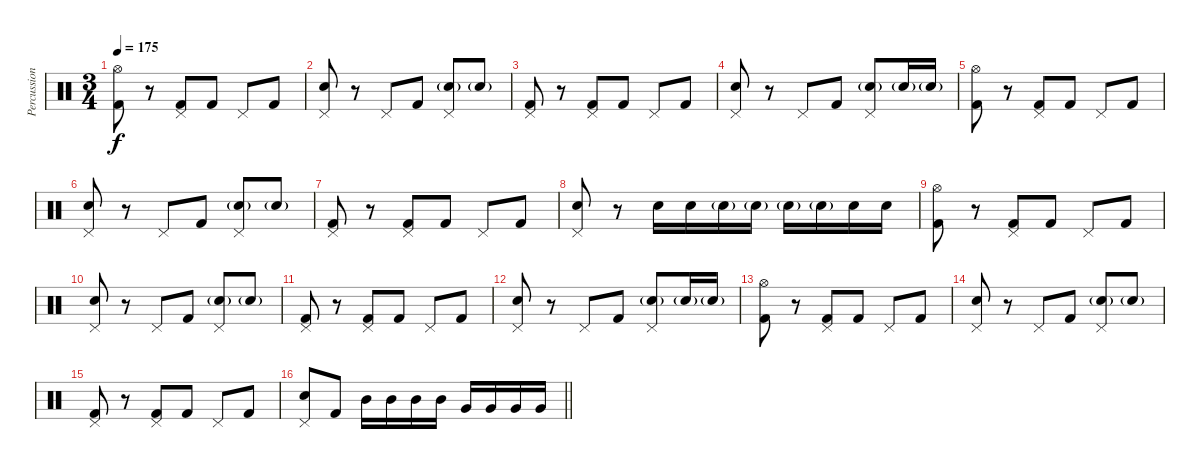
\track ("Percussion" "Percussion") {instrument percussion}
\staff {score}
\articulation defaults
\ts (3 4)
\tempo 175
\clef neutral
\ks c
("Hi-Hat (open)" "Kick (hit) 2").8{dy f} r.8 ("Pedal Hi-Hat (hit)" "Kick (hit) 2").8 "Kick (hit) 2".8 "Pedal Hi-Hat (hit)".8 "Kick (hit) 2".8 |
("Pedal Hi-Hat (hit)" "Electric Snare (hit)").8 r.8 "Pedal Hi-Hat (hit)".8 "Kick (hit) 2".8 ("Pedal Hi-Hat (hit)" "Electric Snare (hit)"{g}).8 "Electric Snare (hit)"{g}.8 |
("Pedal Hi-Hat (hit)" "Kick (hit) 2").8 r.8 ("Pedal Hi-Hat (hit)" "Kick (hit) 2").8 "Kick (hit) 2".8 "Pedal Hi-Hat (hit)".8 "Kick (hit) 2".8 |
("Pedal Hi-Hat (hit)" "Electric Snare (hit)").8 r.8 "Pedal Hi-Hat (hit)".8 "Kick (hit) 2".8 ("Pedal Hi-Hat (hit)" "Electric Snare (hit)"{g}).8 "Electric Snare (hit)"{g}.16 "Electric Snare (hit)"{g}.16 |
("Hi-Hat (open)" "Kick (hit) 2").8 r.8 ("Pedal Hi-Hat (hit)" "Kick (hit) 2").8 "Kick (hit) 2".8 "Pedal Hi-Hat (hit)".8 "Kick (hit) 2".8 |
("Pedal Hi-Hat (hit)" "Electric Snare (hit)").8 r.8 "Pedal Hi-Hat (hit)".8 "Kick (hit) 2".8 ("Pedal Hi-Hat (hit)" "Electric Snare (hit)"{g}).8 "Electric Snare (hit)"{g}.8 |
("Pedal Hi-Hat (hit)" "Kick (hit) 2").8 r.8 ("Pedal Hi-Hat (hit)" "Kick (hit) 2").8 "Kick (hit) 2".8 "Pedal Hi-Hat (hit)".8 "Kick (hit) 2".8 |
("Pedal Hi-Hat (hit)" "Electric Snare (hit)").8 r.8 "Electric Snare (hit)".16 "Electric Snare (hit)".16 "Electric Snare (hit)"{g}.16 "Electric Snare (hit)"{g}.16 "Electric Snare (hit)"{g}.16 "Electric Snare (hit)"{g}.16 "Electric Snare (hit)".16 "Electric Snare (hit)".16 |
("Hi-Hat (open)" "Kick (hit) 2").8 r.8 ("Pedal Hi-Hat (hit)" "Kick (hit) 2").8 "Kick (hit) 2".8 "Pedal Hi-Hat (hit)".8 "Kick (hit) 2".8 |
("Pedal Hi-Hat (hit)" "Electric Snare (hit)").8 r.8 "Pedal Hi-Hat (hit)".8 "Kick (hit) 2".8 ("Pedal Hi-Hat (hit)" "Electric Snare (hit)"{g}).8 "Electric Snare (hit)"{g}.8 |
("Pedal Hi-Hat (hit)" "Kick (hit) 2").8 r.8 ("Pedal Hi-Hat (hit)" "Kick (hit) 2").8 "Kick (hit) 2".8 "Pedal Hi-Hat (hit)".8 "Kick (hit) 2".8 |
("Pedal Hi-Hat (hit)" "Electric Snare (hit)").8 r.8 "Pedal Hi-Hat (hit)".8 "Kick (hit) 2".8 ("Pedal Hi-Hat (hit)" "Electric Snare (hit)"{g}).8 "Electric Snare (hit)"{g}.16 "Electric Snare (hit)"{g}.16 |
("Hi-Hat (open)" "Kick (hit) 2").8 r.8 ("Pedal Hi-Hat (hit)" "Kick (hit) 2").8 "Kick (hit) 2".8 "Pedal Hi-Hat (hit)".8 "Kick (hit) 2".8 |
("Pedal Hi-Hat (hit)" "Electric Snare (hit)").8 r.8 "Pedal Hi-Hat (hit)".8 "Kick (hit) 2".8 ("Pedal Hi-Hat (hit)" "Electric Snare (hit)"{g}).8 "Electric Snare (hit)"{g}.8 |
("Pedal Hi-Hat (hit)" "Kick (hit) 2").8 r.8 ("Pedal Hi-Hat (hit)" "Kick (hit) 2").8 "Kick (hit) 2".8 "Pedal Hi-Hat (hit)".8 "Kick (hit) 2".8 |
\barLineRight lightlight
("Pedal Hi-Hat (hit)" "Electric Snare (hit)").8 "Kick (hit) 2".8 "Mid Tom (hit)".16 "Mid Tom (hit)".16 "Mid Tom (hit)".16 "Mid Tom (hit)".16 "Very Low Tom (hit)".16 "Very Low Tom (hit)".16 "Very Low Tom (hit)".16 "Very Low Tom (hit)".16
